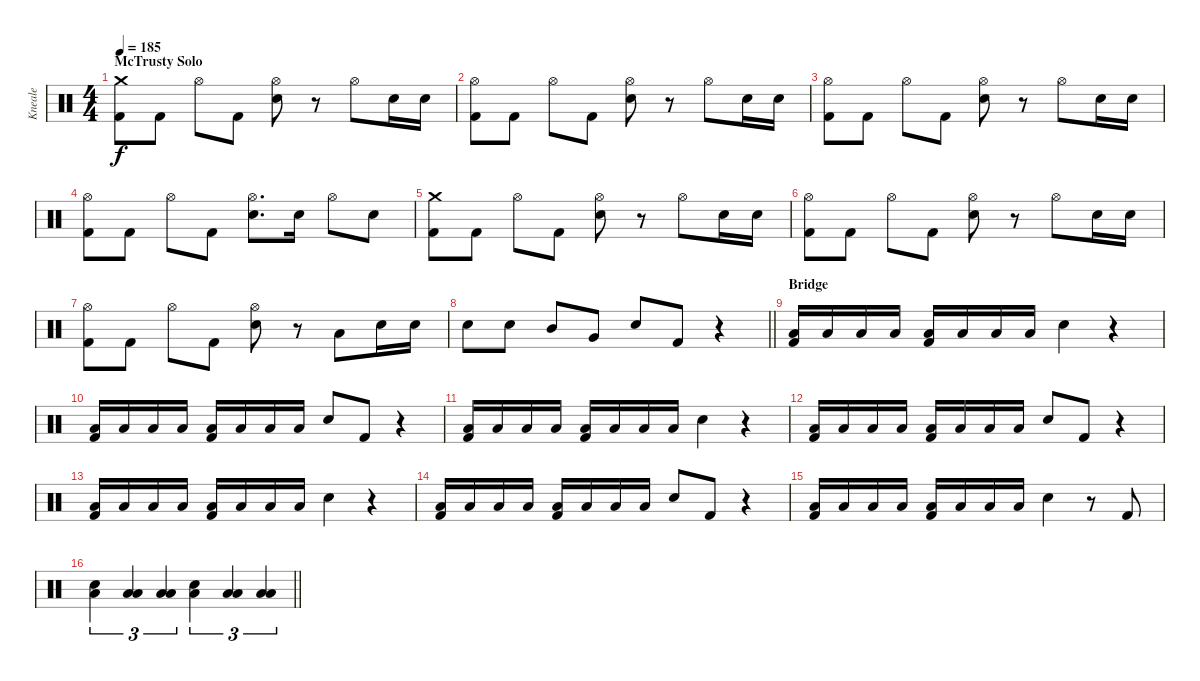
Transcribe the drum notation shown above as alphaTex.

\track ("Kneale" "Kneale") {instrument percussion}
\staff {score}
\articulation defaults
\ts (4 4)
\section ("" "McTrusty Solo")
\tempo 185
\clef neutral
\ks c
("Crash medium (hit)" "Kick (hit) 2").8{dy f} "Kick (hit) 2".8 "Hi-Hat (open)".8 "Kick (hit) 2".8 ("Hi-Hat (open)" "Electric Snare (hit)").8 r.8 "Hi-Hat (open)".8 "Electric Snare (hit)".16 "Electric Snare (hit)".16 |
("Hi-Hat (open)" "Kick (hit) 2").8 "Kick (hit) 2".8 "Hi-Hat (open)".8 "Kick (hit) 2".8 ("Hi-Hat (open)" "Electric Snare (hit)").8 r.8 "Hi-Hat (open)".8 "Electric Snare (hit)".16 "Electric Snare (hit)".16 |
("Hi-Hat (open)" "Kick (hit) 2").8 "Kick (hit) 2".8 "Hi-Hat (open)".8 "Kick (hit) 2".8 ("Hi-Hat (open)" "Electric Snare (hit)").8 r.8 "Hi-Hat (open)".8 "Electric Snare (hit)".16 "Electric Snare (hit)".16 |
("Hi-Hat (open)" "Kick (hit) 2").8 "Kick (hit) 2".8 "Hi-Hat (open)".8 "Kick (hit) 2".8 ("Hi-Hat (open)" "Electric Snare (hit)").8{d} "Electric Snare (hit)".16 "Hi-Hat (open)".8 "Electric Snare (hit)".8 |
("Crash medium (hit)" "Kick (hit) 2").8 "Kick (hit) 2".8 "Hi-Hat (open)".8 "Kick (hit) 2".8 ("Hi-Hat (open)" "Electric Snare (hit)").8 r.8 "Hi-Hat (open)".8 "Electric Snare (hit)".16 "Electric Snare (hit)".16 |
("Hi-Hat (open)" "Kick (hit) 2").8 "Kick (hit) 2".8 "Hi-Hat (open)".8 "Kick (hit) 2".8 ("Hi-Hat (open)" "Electric Snare (hit)").8 r.8 "Hi-Hat (open)".8 "Electric Snare (hit)".16 "Electric Snare (hit)".16 |
("Hi-Hat (open)" "Kick (hit) 2").8 "Kick (hit) 2".8 "Hi-Hat (open)".8 "Kick (hit) 2".8 ("Hi-Hat (open)" "Electric Snare (hit)").8 r.8 "Low Floor Tom (hit)".8 "Electric Snare (hit)".16 "Electric Snare (hit)".16 |
\barLineRight lightlight "Electric Snare (hit)".8 "Electric Snare (hit)".8 "Mid Tom (hit)".8 "Very Low Tom (hit)".8 "Electric Snare (hit)".8 "Kick (hit) 2".8
r.4 |
\section ("" "Bridge")
("Low Floor Tom (hit)" "Kick (hit) 2").16 "Low Floor Tom (hit)".16 "Low Floor Tom (hit)".16 "Low Floor Tom (hit)".16 ("Low Floor Tom (hit)" "Kick (hit) 2").16 "Low Floor Tom (hit)".16 "Low Floor Tom (hit)".16 "Low Floor Tom (hit)".16 "Electric Snare (hit)".4 r.4 |
("Low Floor Tom (hit)" "Kick (hit) 2").16 "Low Floor Tom (hit)".16 "Low Floor Tom (hit)".16 "Low Floor Tom (hit)".16 ("Low Floor Tom (hit)" "Kick (hit) 2").16 "Low Floor Tom (hit)".16 "Low Floor Tom (hit)".16 "Low Floor Tom (hit)".16 "Electric Snare (hit)".8 "Kick (hit) 2".8 r.4 |
("Low Floor Tom (hit)" "Kick (hit) 2").16 "Low Floor Tom (hit)".16 "Low Floor Tom (hit)".16 "Low Floor Tom (hit)".16 ("Low Floor Tom (hit)" "Kick (hit) 2").16 "Low Floor Tom (hit)".16 "Low Floor Tom (hit)".16 "Low Floor Tom (hit)".16 "Electric Snare (hit)".4 r.4 |
("Low Floor Tom (hit)" "Kick (hit) 2").16 "Low Floor Tom (hit)".16 "Low Floor Tom (hit)".16 "Low Floor Tom (hit)".16 ("Low Floor Tom (hit)" "Kick (hit) 2").16 "Low Floor Tom (hit)".16 "Low Floor Tom (hit)".16 "Low Floor Tom (hit)".16 "Electric Snare (hit)".8 "Kick (hit) 2".8 r.4 |
("Low Floor Tom (hit)" "Kick (hit) 2").16 "Low Floor Tom (hit)".16 "Low Floor Tom (hit)".16 "Low Floor Tom (hit)".16 ("Low Floor Tom (hit)" "Kick (hit) 2").16 "Low Floor Tom (hit)".16 "Low Floor Tom (hit)".16 "Low Floor Tom (hit)".16 "Electric Snare (hit)".4 r.4 |
("Low Floor Tom (hit)" "Kick (hit) 2").16 "Low Floor Tom (hit)".16 "Low Floor Tom (hit)".16 "Low Floor Tom (hit)".16 ("Low Floor Tom (hit)" "Kick (hit) 2").16 "Low Floor Tom (hit)".16 "Low Floor Tom (hit)".16 "Low Floor Tom (hit)".16 "Electric Snare (hit)".8 "Kick (hit) 2".8 r.4 |
("Low Floor Tom (hit)" "Kick (hit) 2").16 "Low Floor Tom (hit)".16 "Low Floor Tom (hit)".16 "Low Floor Tom (hit)".16 ("Low Floor Tom (hit)" "Kick (hit) 2").16 "Low Floor Tom (hit)".16 "Low Floor Tom (hit)".16 "Low Floor Tom (hit)".16 "Electric Snare (hit)".4 r.8 "Kick (hit) 2".8 |
\barLineRight lightlight
("Low Floor Tom (hit)" "Electric Snare (hit)").4{tu (3 2)} ("Low Tom (hit)" "Low Floor Tom (hit)").4{tu (3 2)} ("Low Tom (hit)" "Low Floor Tom (hit)").4{tu (3 2)} ("Low Floor Tom (hit)" "Electric Snare (hit)").4{tu (3 2)} ("Low Tom (hit)" "Low Floor Tom (hit)").4{tu (3 2)} ("Low Tom (hit)" "Low Floor Tom (hit)").4{tu (3 2)}
